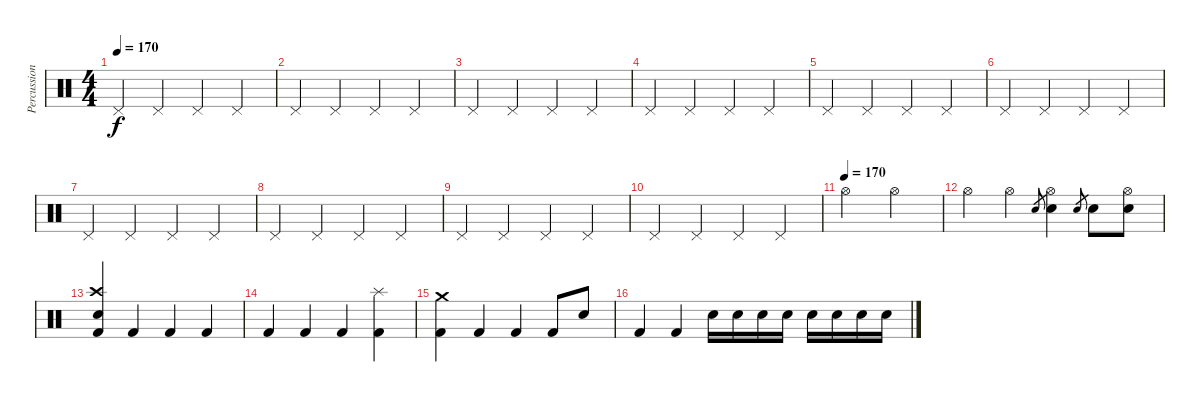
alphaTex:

\track ("Percussion" "Percussion") {instrument percussion}
\staff {score}
\articulation defaults
\ts (4 4)
\tempo 170
\tempo 90
\tempo 170
\clef neutral
\ks c "Pedal Hi-Hat (hit)".4{dy f} "Pedal Hi-Hat (hit)".4 "Pedal Hi-Hat (hit)".4 "Pedal Hi-Hat (hit)".4
|
"Pedal Hi-Hat (hit)".4 "Pedal Hi-Hat (hit)".4 "Pedal Hi-Hat (hit)".4 "Pedal Hi-Hat (hit)".4 |
"Pedal Hi-Hat (hit)".4 "Pedal Hi-Hat (hit)".4 "Pedal Hi-Hat (hit)".4 "Pedal Hi-Hat (hit)".4 |
"Pedal Hi-Hat (hit)".4 "Pedal Hi-Hat (hit)".4 "Pedal Hi-Hat (hit)".4 "Pedal Hi-Hat (hit)".4 |
"Pedal Hi-Hat (hit)".4 "Pedal Hi-Hat (hit)".4 "Pedal Hi-Hat (hit)".4 "Pedal Hi-Hat (hit)".4 |
"Pedal Hi-Hat (hit)".4 "Pedal Hi-Hat (hit)".4 "Pedal Hi-Hat (hit)".4 "Pedal Hi-Hat (hit)".4 |
"Pedal Hi-Hat (hit)".4 "Pedal Hi-Hat (hit)".4 "Pedal Hi-Hat (hit)".4 "Pedal Hi-Hat (hit)".4 |
"Pedal Hi-Hat (hit)".4 "Pedal Hi-Hat (hit)".4 "Pedal Hi-Hat (hit)".4 "Pedal Hi-Hat (hit)".4 |
"Pedal Hi-Hat (hit)".4 "Pedal Hi-Hat (hit)".4 "Pedal Hi-Hat (hit)".4 "Pedal Hi-Hat (hit)".4 |
"Pedal Hi-Hat (hit)".4 "Pedal Hi-Hat (hit)".4 "Pedal Hi-Hat (hit)".4 "Pedal Hi-Hat (hit)".4 |
\tempo (170)
"Hi-Hat (open)".2 "Hi-Hat (open)".2 |
"Hi-Hat (open)".4 "Hi-Hat (open)".4 "Electric Snare (hit)".8{gr} ("Hi-Hat (open)" "Snare (hit) 2").4 "Electric Snare (hit)".8{gr} "Snare (hit) 2".8 ("Hi-Hat (open)" "Snare (hit) 2").8 |
("Crash high (hit)" "Snare (hit) 2" "Kick (hit) 2").4 "Kick (hit) 2".4 "Kick (hit) 2".4 "Kick (hit) 2".4 |
"Kick (hit) 2".4 "Kick (hit) 2".4 "Kick (hit) 2".4 ("Splash (hit)" "Kick (hit) 2").4 |
("Crash medium (hit)" "Kick (hit) 2").4 "Kick (hit) 2".4 "Kick (hit) 2".4 "Kick (hit) 2".8 "Snare (hit) 2".8 |
"Kick (hit) 2".4 "Kick (hit) 2".4 "Snare (hit) 2".16 "Snare (hit) 2".16 "Snare (hit) 2".16 "Snare (hit) 2".16 "Snare (hit) 2".16 "Snare (hit) 2".16 "Snare (hit) 2".16 "Snare (hit) 2".16
